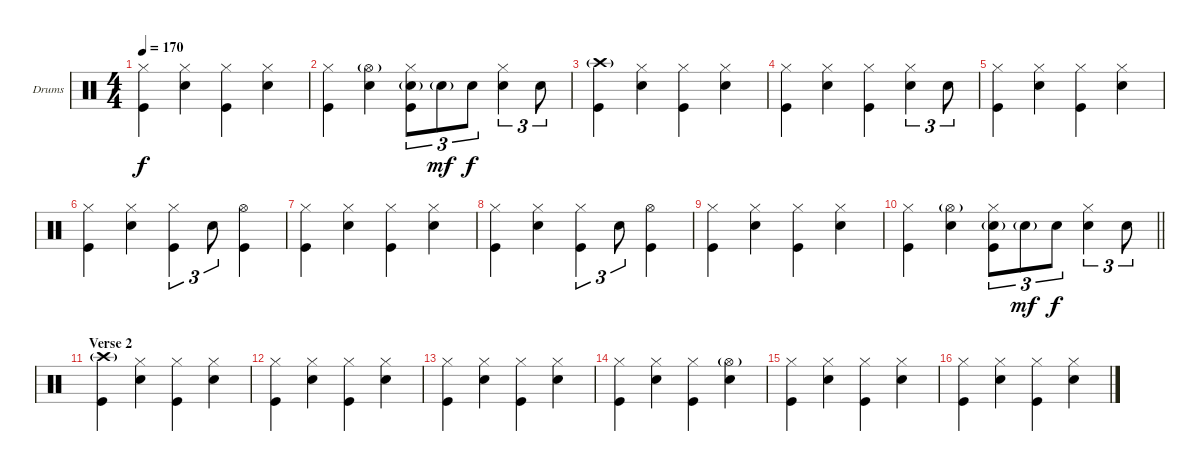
\bracketExtendMode groupsimilarinstruments
\firstSystemTrackNameOrientation horizontal
\otherSystemsTrackNameOrientation horizontal
\track ("Dave Grohl [Drumms]" "Drums") {instrument percussion}
\staff {score}
\articulation defaults
\ts (4 4)
\tempo 170
\clef neutral
\ks c
("Hi-Hat (closed)" "Kick (hit)").4{dy f} ("Hi-Hat (closed)" "Snare (hit) 2").4 ("Hi-Hat (closed)" "Kick (hit)").4 ("Hi-Hat (closed)" "Snare (hit) 2").4 |
("Hi-Hat (closed)" "Kick (hit)").4 ("Hi-Hat (open)"{g} "Snare (hit) 2").4 ("Hi-Hat (closed)" "Snare (hit) 2"{g} "Kick (hit)").8{tu (3 2)} "Snare (hit) 2"{g}.8{tu (3 2) dy mf} "Snare (hit) 2".8{tu (3 2) dy f} ("Hi-Hat (closed)" "Snare (hit) 2").4{tu (3 2)} "Snare (hit) 2".8{tu (3 2)} |
("Crash high (hit)"{g} "Kick (hit)").4 ("Hi-Hat (closed)" "Snare (hit) 2").4 ("Hi-Hat (closed)" "Kick (hit)").4 ("Hi-Hat (closed)" "Snare (hit) 2").4 |
("Hi-Hat (closed)" "Kick (hit)").4 ("Hi-Hat (closed)" "Snare (hit) 2").4 ("Hi-Hat (closed)" "Kick (hit)").4 ("Hi-Hat (closed)" "Snare (hit) 2").4{tu (3 2)} "Snare (hit) 2".8{tu (3 2)} |
("Hi-Hat (closed)" "Kick (hit)").4 ("Hi-Hat (closed)" "Snare (hit) 2").4 ("Hi-Hat (closed)" "Kick (hit)").4 ("Hi-Hat (closed)" "Snare (hit) 2").4 |
("Hi-Hat (closed)" "Kick (hit)").4 ("Hi-Hat (closed)" "Snare (hit) 2").4 ("Hi-Hat (closed)" "Kick (hit)").4{tu (3 2)} "Snare (hit) 2".8{tu (3 2)} ("Hi-Hat (open)" "Kick (hit)").4 |
("Hi-Hat (closed)" "Kick (hit)").4 ("Hi-Hat (closed)" "Snare (hit) 2").4 ("Hi-Hat (closed)" "Kick (hit)").4 ("Hi-Hat (closed)" "Snare (hit) 2").4 |
("Hi-Hat (closed)" "Kick (hit)").4 ("Hi-Hat (closed)" "Snare (hit) 2").4 ("Hi-Hat (closed)" "Kick (hit)").4{tu (3 2)} "Snare (hit) 2".8{tu (3 2)} ("Hi-Hat (open)" "Kick (hit)").4 |
("Hi-Hat (closed)" "Kick (hit)").4 ("Hi-Hat (closed)" "Snare (hit) 2").4 ("Hi-Hat (closed)" "Kick (hit)").4 ("Hi-Hat (closed)" "Snare (hit) 2").4 |
\barLineRight lightlight
("Hi-Hat (closed)" "Kick (hit)").4 ("Hi-Hat (open)"{g} "Snare (hit) 2").4 ("Hi-Hat (closed)" "Snare (hit) 2"{g} "Kick (hit)").8{tu (3 2)} "Snare (hit) 2"{g}.8{tu (3 2) dy mf} "Snare (hit) 2".8{tu (3 2) dy f} ("Hi-Hat (closed)" "Snare (hit) 2").4{tu (3 2)} "Snare (hit) 2".8{tu (3 2)} |
\section ("" "Verse 2")
("Crash high (hit)"{g} "Kick (hit)").4 ("Hi-Hat (closed)" "Snare (hit) 2").4 ("Hi-Hat (closed)" "Kick (hit)").4 ("Hi-Hat (closed)" "Snare (hit) 2").4 |
("Hi-Hat (closed)" "Kick (hit)").4 ("Hi-Hat (closed)" "Snare (hit) 2").4 ("Hi-Hat (closed)" "Kick (hit)").4 ("Hi-Hat (closed)" "Snare (hit) 2").4 |
("Hi-Hat (closed)" "Kick (hit)").4 ("Hi-Hat (closed)" "Snare (hit) 2").4 ("Hi-Hat (closed)" "Kick (hit)").4 ("Hi-Hat (closed)" "Snare (hit) 2").4 |
("Hi-Hat (closed)" "Kick (hit)").4 ("Hi-Hat (closed)" "Snare (hit) 2").4 ("Hi-Hat (closed)" "Kick (hit)").4 ("Hi-Hat (open)"{g} "Snare (hit) 2").4 |
("Hi-Hat (closed)" "Kick (hit)").4 ("Hi-Hat (closed)" "Snare (hit) 2").4 ("Hi-Hat (closed)" "Kick (hit)").4 ("Hi-Hat (closed)" "Snare (hit) 2").4 |
("Hi-Hat (closed)" "Kick (hit)").4 ("Hi-Hat (closed)" "Snare (hit) 2").4 ("Hi-Hat (closed)" "Kick (hit)").4 ("Hi-Hat (closed)" "Snare (hit) 2").4
